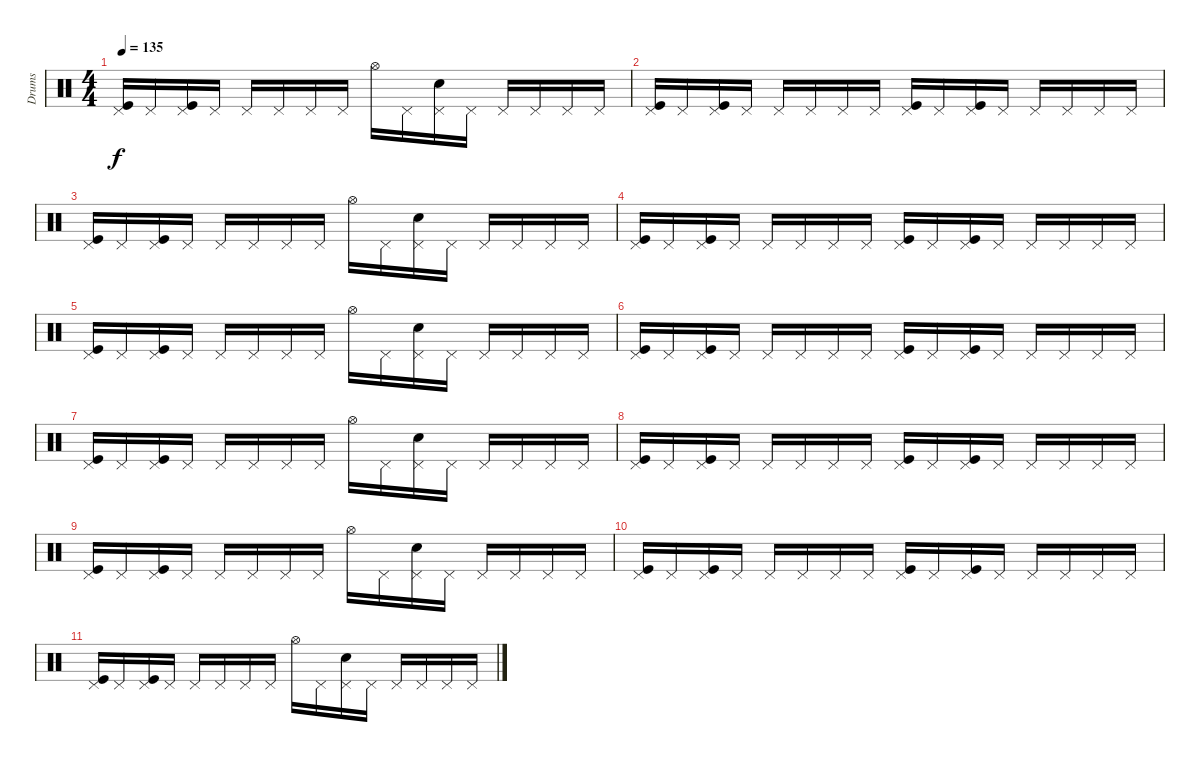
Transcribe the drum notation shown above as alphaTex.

\track ("Drums" "Drums") {instrument percussion}
\staff {score}
\articulation defaults
\ts (4 4)
\tempo 135
\clef neutral
\ks c
("Pedal Hi-Hat (hit)" "Kick (hit)").16{dy f} "Pedal Hi-Hat (hit)".16 ("Pedal Hi-Hat (hit)" "Kick (hit)").16 "Pedal Hi-Hat (hit)".16 "Pedal Hi-Hat (hit)".16 "Pedal Hi-Hat (hit)".16 "Pedal Hi-Hat (hit)".16 "Pedal Hi-Hat (hit)".16 "Hi-Hat (open)".16 "Pedal Hi-Hat (hit)".16 ("Pedal Hi-Hat (hit)" "Snare (hit) 2").16 "Pedal Hi-Hat (hit)".16 "Pedal Hi-Hat (hit)".16 "Pedal Hi-Hat (hit)".16 "Pedal Hi-Hat (hit)".16 "Pedal Hi-Hat (hit)".16 |
("Pedal Hi-Hat (hit)" "Kick (hit)").16 "Pedal Hi-Hat (hit)".16 ("Pedal Hi-Hat (hit)" "Kick (hit)").16 "Pedal Hi-Hat (hit)".16 "Pedal Hi-Hat (hit)".16 "Pedal Hi-Hat (hit)".16 "Pedal Hi-Hat (hit)".16 "Pedal Hi-Hat (hit)".16 ("Pedal Hi-Hat (hit)" "Kick (hit)").16 "Pedal Hi-Hat (hit)".16 ("Pedal Hi-Hat (hit)" "Kick (hit)").16 "Pedal Hi-Hat (hit)".16 "Pedal Hi-Hat (hit)".16 "Pedal Hi-Hat (hit)".16 "Pedal Hi-Hat (hit)".16 "Pedal Hi-Hat (hit)".16 |
("Pedal Hi-Hat (hit)" "Kick (hit)").16 "Pedal Hi-Hat (hit)".16 ("Pedal Hi-Hat (hit)" "Kick (hit)").16 "Pedal Hi-Hat (hit)".16 "Pedal Hi-Hat (hit)".16 "Pedal Hi-Hat (hit)".16 "Pedal Hi-Hat (hit)".16 "Pedal Hi-Hat (hit)".16 "Hi-Hat (open)".16 "Pedal Hi-Hat (hit)".16 ("Pedal Hi-Hat (hit)" "Snare (hit) 2").16 "Pedal Hi-Hat (hit)".16 "Pedal Hi-Hat (hit)".16 "Pedal Hi-Hat (hit)".16 "Pedal Hi-Hat (hit)".16 "Pedal Hi-Hat (hit)".16 |
("Pedal Hi-Hat (hit)" "Kick (hit)").16 "Pedal Hi-Hat (hit)".16 ("Pedal Hi-Hat (hit)" "Kick (hit)").16 "Pedal Hi-Hat (hit)".16 "Pedal Hi-Hat (hit)".16 "Pedal Hi-Hat (hit)".16 "Pedal Hi-Hat (hit)".16 "Pedal Hi-Hat (hit)".16 ("Pedal Hi-Hat (hit)" "Kick (hit)").16 "Pedal Hi-Hat (hit)".16 ("Pedal Hi-Hat (hit)" "Kick (hit)").16 "Pedal Hi-Hat (hit)".16 "Pedal Hi-Hat (hit)".16 "Pedal Hi-Hat (hit)".16 "Pedal Hi-Hat (hit)".16 "Pedal Hi-Hat (hit)".16 |
("Pedal Hi-Hat (hit)" "Kick (hit)").16 "Pedal Hi-Hat (hit)".16 ("Pedal Hi-Hat (hit)" "Kick (hit)").16 "Pedal Hi-Hat (hit)".16 "Pedal Hi-Hat (hit)".16 "Pedal Hi-Hat (hit)".16 "Pedal Hi-Hat (hit)".16 "Pedal Hi-Hat (hit)".16 "Hi-Hat (open)".16 "Pedal Hi-Hat (hit)".16 ("Pedal Hi-Hat (hit)" "Snare (hit) 2").16 "Pedal Hi-Hat (hit)".16 "Pedal Hi-Hat (hit)".16 "Pedal Hi-Hat (hit)".16 "Pedal Hi-Hat (hit)".16 "Pedal Hi-Hat (hit)".16 |
("Pedal Hi-Hat (hit)" "Kick (hit)").16 "Pedal Hi-Hat (hit)".16 ("Pedal Hi-Hat (hit)" "Kick (hit)").16 "Pedal Hi-Hat (hit)".16 "Pedal Hi-Hat (hit)".16 "Pedal Hi-Hat (hit)".16 "Pedal Hi-Hat (hit)".16 "Pedal Hi-Hat (hit)".16 ("Pedal Hi-Hat (hit)" "Kick (hit)").16 "Pedal Hi-Hat (hit)".16 ("Pedal Hi-Hat (hit)" "Kick (hit)").16 "Pedal Hi-Hat (hit)".16 "Pedal Hi-Hat (hit)".16 "Pedal Hi-Hat (hit)".16 "Pedal Hi-Hat (hit)".16 "Pedal Hi-Hat (hit)".16 |
("Pedal Hi-Hat (hit)" "Kick (hit)").16 "Pedal Hi-Hat (hit)".16 ("Pedal Hi-Hat (hit)" "Kick (hit)").16 "Pedal Hi-Hat (hit)".16 "Pedal Hi-Hat (hit)".16 "Pedal Hi-Hat (hit)".16 "Pedal Hi-Hat (hit)".16 "Pedal Hi-Hat (hit)".16 "Hi-Hat (open)".16 "Pedal Hi-Hat (hit)".16 ("Pedal Hi-Hat (hit)" "Snare (hit) 2").16 "Pedal Hi-Hat (hit)".16 "Pedal Hi-Hat (hit)".16 "Pedal Hi-Hat (hit)".16 "Pedal Hi-Hat (hit)".16 "Pedal Hi-Hat (hit)".16 |
("Pedal Hi-Hat (hit)" "Kick (hit)").16{volume 15} "Pedal Hi-Hat (hit)".16 ("Pedal Hi-Hat (hit)" "Kick (hit)").16 "Pedal Hi-Hat (hit)".16 "Pedal Hi-Hat (hit)".16{volume 14} "Pedal Hi-Hat (hit)".16 "Pedal Hi-Hat (hit)".16 "Pedal Hi-Hat (hit)".16 ("Pedal Hi-Hat (hit)" "Kick (hit)").16{volume 13} "Pedal Hi-Hat (hit)".16 ("Pedal Hi-Hat (hit)" "Kick (hit)").16 "Pedal Hi-Hat (hit)".16 "Pedal Hi-Hat (hit)".16{volume 12} "Pedal Hi-Hat (hit)".16 "Pedal Hi-Hat (hit)".16 "Pedal Hi-Hat (hit)".16 |
("Pedal Hi-Hat (hit)" "Kick (hit)").16{volume 11} "Pedal Hi-Hat (hit)".16 ("Pedal Hi-Hat (hit)" "Kick (hit)").16 "Pedal Hi-Hat (hit)".16 "Pedal Hi-Hat (hit)".16{volume 10} "Pedal Hi-Hat (hit)".16 "Pedal Hi-Hat (hit)".16 "Pedal Hi-Hat (hit)".16 "Hi-Hat (open)".16{volume 9} "Pedal Hi-Hat (hit)".16 ("Pedal Hi-Hat (hit)" "Snare (hit) 2").16 "Pedal Hi-Hat (hit)".16 "Pedal Hi-Hat (hit)".16{volume 8} "Pedal Hi-Hat (hit)".16 "Pedal Hi-Hat (hit)".16 "Pedal Hi-Hat (hit)".16 |
("Pedal Hi-Hat (hit)" "Kick (hit)").16{volume 7} "Pedal Hi-Hat (hit)".16 ("Pedal Hi-Hat (hit)" "Kick (hit)").16 "Pedal Hi-Hat (hit)".16 "Pedal Hi-Hat (hit)".16{volume 6} "Pedal Hi-Hat (hit)".16 "Pedal Hi-Hat (hit)".16 "Pedal Hi-Hat (hit)".16 ("Pedal Hi-Hat (hit)" "Kick (hit)").16{volume 5} "Pedal Hi-Hat (hit)".16 ("Pedal Hi-Hat (hit)" "Kick (hit)").16 "Pedal Hi-Hat (hit)".16 "Pedal Hi-Hat (hit)".16{volume 4} "Pedal Hi-Hat (hit)".16 "Pedal Hi-Hat (hit)".16 "Pedal Hi-Hat (hit)".16 |
("Pedal Hi-Hat (hit)" "Kick (hit)").16{volume 3} "Pedal Hi-Hat (hit)".16 ("Pedal Hi-Hat (hit)" "Kick (hit)").16 "Pedal Hi-Hat (hit)".16 "Pedal Hi-Hat (hit)".16{volume 2} "Pedal Hi-Hat (hit)".16 "Pedal Hi-Hat (hit)".16 "Pedal Hi-Hat (hit)".16 "Hi-Hat (open)".16{volume 1} "Pedal Hi-Hat (hit)".16 ("Pedal Hi-Hat (hit)" "Snare (hit) 2").16 "Pedal Hi-Hat (hit)".16 "Pedal Hi-Hat (hit)".16{volume 0} "Pedal Hi-Hat (hit)".16 "Pedal Hi-Hat (hit)".16 "Pedal Hi-Hat (hit)".16
